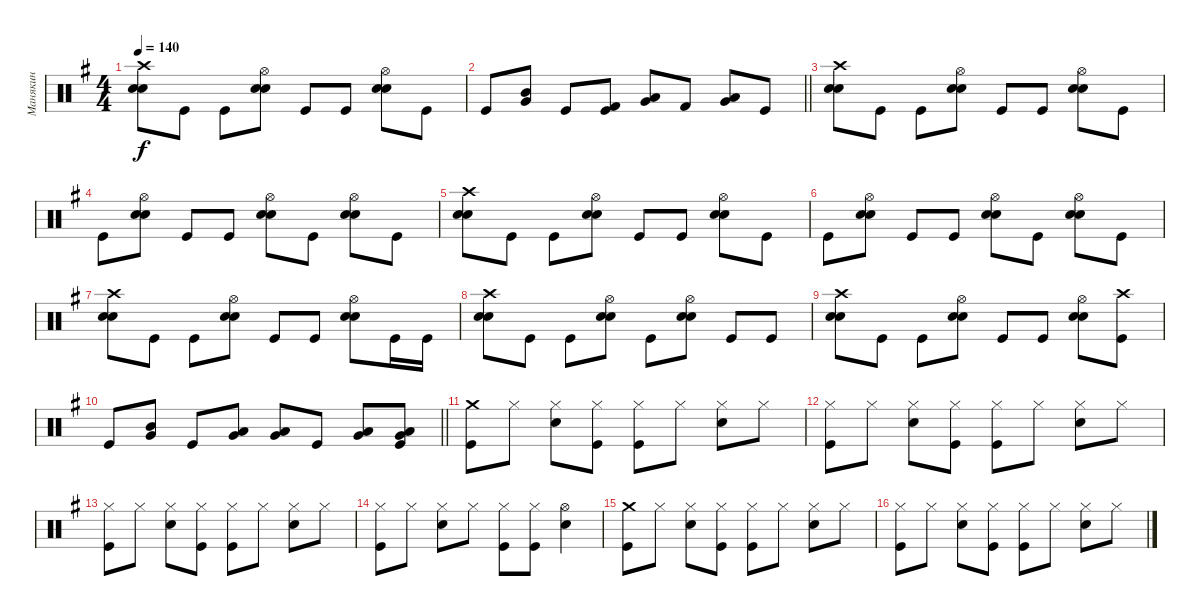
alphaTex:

\track ("Манякин" "Манякин") {instrument percussion}
\staff {score}
\articulation defaults
\ts (4 4)
\tempo 140
\clef neutral
\ks g
("Crash high (hit)" "Electric Snare (hit)" "Snare (hit) 2").8{dy f} "Kick (hit)".8 "Kick (hit)".8 ("Hi-Hat (open)" "Electric Snare (hit)" "Snare (hit) 2").8 "Kick (hit)".8 "Kick (hit)".8 ("Hi-Hat (open)" "Electric Snare (hit)" "Snare (hit) 2").8 "Kick (hit)".8 |
\barLineRight lightlight "Kick (hit)".8
("Very Low Tom (hit)" "Mid Tom (hit)").8 "Kick (hit)".8 ("Kick (hit) 2" "Kick (hit)").8 ("Low Tom (hit)" "Very Low Tom (hit)").8 "Kick (hit) 2".8 ("Very Low Tom (hit)" "Low Floor Tom (hit)").8 "Kick (hit)".8 |
("Crash high (hit)" "Electric Snare (hit)" "Snare (hit) 2").8 "Kick (hit)".8 "Kick (hit)".8 ("Hi-Hat (open)" "Electric Snare (hit)" "Snare (hit) 2").8 "Kick (hit)".8 "Kick (hit)".8 ("Hi-Hat (open)" "Electric Snare (hit)" "Snare (hit) 2").8 "Kick (hit)".8 |
"Kick (hit)".8 ("Hi-Hat (open)" "Electric Snare (hit)" "Snare (hit) 2").8 "Kick (hit)".8 "Kick (hit)".8 ("Hi-Hat (open)" "Electric Snare (hit)" "Snare (hit) 2").8 "Kick (hit)".8 ("Hi-Hat (open)" "Electric Snare (hit)" "Snare (hit) 2").8 "Kick (hit)".8 |
("Crash high (hit)" "Electric Snare (hit)" "Snare (hit) 2").8 "Kick (hit)".8 "Kick (hit)".8 ("Hi-Hat (open)" "Electric Snare (hit)" "Snare (hit) 2").8 "Kick (hit)".8 "Kick (hit)".8 ("Hi-Hat (open)" "Electric Snare (hit)" "Snare (hit) 2").8 "Kick (hit)".8 |
"Kick (hit)".8 ("Hi-Hat (open)" "Electric Snare (hit)" "Snare (hit) 2").8 "Kick (hit)".8 "Kick (hit)".8 ("Hi-Hat (open)" "Electric Snare (hit)" "Snare (hit) 2").8 "Kick (hit)".8 ("Hi-Hat (open)" "Electric Snare (hit)" "Snare (hit) 2").8 "Kick (hit)".8 |
("Crash high (hit)" "Electric Snare (hit)" "Snare (hit) 2").8 "Kick (hit)".8 "Kick (hit)".8 ("Hi-Hat (open)" "Electric Snare (hit)" "Snare (hit) 2").8 "Kick (hit)".8 "Kick (hit)".8 ("Hi-Hat (open)" "Electric Snare (hit)" "Snare (hit) 2").8 "Kick (hit)".16 "Kick (hit)".16 |
("Crash high (hit)" "Electric Snare (hit)" "Snare (hit) 2").8 "Kick (hit)".8 "Kick (hit)".8 ("Hi-Hat (open)" "Electric Snare (hit)" "Snare (hit) 2").8 "Kick (hit)".8 ("Hi-Hat (open)" "Electric Snare (hit)" "Snare (hit) 2").8 "Kick (hit)".8 "Kick (hit)".8 |
("Crash high (hit)" "Electric Snare (hit)" "Snare (hit) 2").8 "Kick (hit)".8 "Kick (hit)".8 ("Hi-Hat (open)" "Electric Snare (hit)" "Snare (hit) 2").8 "Kick (hit)".8 "Kick (hit)".8 ("Hi-Hat (open)" "Electric Snare (hit)" "Snare (hit) 2").8 ("Crash high (hit)" "Kick (hit)").8 |
\barLineRight lightlight "Kick (hit)".8
("Very Low Tom (hit)" "Mid Tom (hit)").8 "Kick (hit)".8 ("Very Low Tom (hit)" "Low Floor Tom (hit)").8 ("Low Tom (hit)" "Very Low Tom (hit)").8 "Kick (hit)".8 ("Very Low Tom (hit)" "Low Floor Tom (hit)").8 ("Low Tom (hit)" "Very Low Tom (hit)" "Kick (hit)").8 |
("Crash medium (hit)" "Kick (hit)").8 "Hi-Hat (closed)".8 ("Hi-Hat (closed)" "Snare (hit) 2").8 ("Hi-Hat (closed)" "Kick (hit)").8 ("Hi-Hat (closed)" "Kick (hit)").8 "Hi-Hat (closed)".8 ("Hi-Hat (closed)" "Snare (hit) 2").8 "Hi-Hat (closed)".8 |
("Hi-Hat (closed)" "Kick (hit)").8 "Hi-Hat (closed)".8 ("Hi-Hat (closed)" "Snare (hit) 2").8 ("Hi-Hat (closed)" "Kick (hit)").8 ("Hi-Hat (closed)" "Kick (hit)").8 "Hi-Hat (closed)".8 ("Hi-Hat (closed)" "Snare (hit) 2").8 "Hi-Hat (closed)".8 |
("Hi-Hat (closed)" "Kick (hit)").8 "Hi-Hat (closed)".8 ("Hi-Hat (closed)" "Snare (hit) 2").8 ("Hi-Hat (closed)" "Kick (hit)").8 ("Hi-Hat (closed)" "Kick (hit)").8 "Hi-Hat (closed)".8 ("Hi-Hat (closed)" "Snare (hit) 2").8 "Hi-Hat (closed)".8 |
("Hi-Hat (closed)" "Kick (hit)").8 "Hi-Hat (closed)".8 ("Hi-Hat (closed)" "Snare (hit) 2").8 "Hi-Hat (closed)".8 ("Hi-Hat (closed)" "Kick (hit)").8 ("Hi-Hat (closed)" "Kick (hit)").8 ("Hi-Hat (open)" "Snare (hit) 2").4 |
("Crash medium (hit)" "Kick (hit)").8 "Hi-Hat (closed)".8 ("Hi-Hat (closed)" "Snare (hit) 2").8 ("Hi-Hat (closed)" "Kick (hit)").8 ("Hi-Hat (closed)" "Kick (hit)").8 "Hi-Hat (closed)".8 ("Hi-Hat (closed)" "Snare (hit) 2").8 "Hi-Hat (closed)".8 |
("Hi-Hat (closed)" "Kick (hit)").8 "Hi-Hat (closed)".8 ("Hi-Hat (closed)" "Snare (hit) 2").8 ("Hi-Hat (closed)" "Kick (hit)").8 ("Hi-Hat (closed)" "Kick (hit)").8 "Hi-Hat (closed)".8 ("Hi-Hat (closed)" "Snare (hit) 2").8 "Hi-Hat (closed)".8
